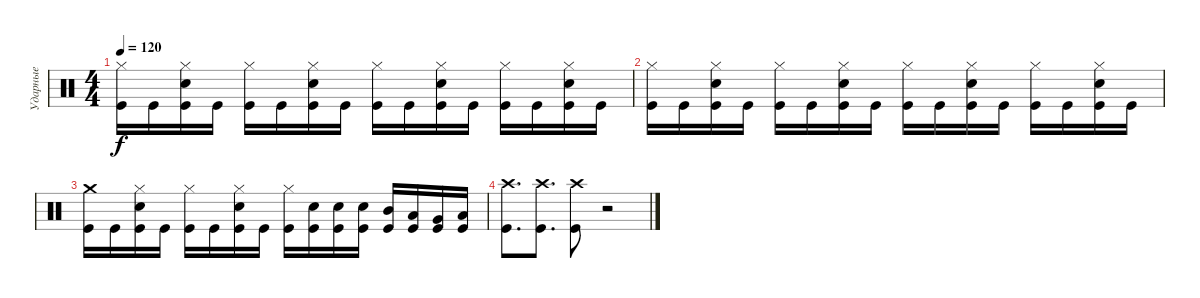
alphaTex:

\track ("Ударные" "Ударные") {instrument percussion}
\staff {score}
\articulation defaults
\ts (4 4)
\tempo 120
\clef neutral
\ks c
("Hi-Hat (closed)" "Kick (hit)").16{dy f} "Kick (hit)".16 ("Hi-Hat (closed)" "Snare (hit) 2" "Kick (hit)").16 "Kick (hit)".16 ("Hi-Hat (closed)" "Kick (hit)").16 "Kick (hit)".16 ("Hi-Hat (closed)" "Snare (hit) 2" "Kick (hit)").16 "Kick (hit)".16 ("Hi-Hat (closed)" "Kick (hit)").16 "Kick (hit)".16 ("Hi-Hat (closed)" "Snare (hit) 2" "Kick (hit)").16 "Kick (hit)".16 ("Hi-Hat (closed)" "Kick (hit)").16 "Kick (hit)".16 ("Hi-Hat (closed)" "Snare (hit) 2" "Kick (hit)").16 "Kick (hit)".16 |
("Hi-Hat (closed)" "Kick (hit)").16 "Kick (hit)".16 ("Hi-Hat (closed)" "Snare (hit) 2" "Kick (hit)").16 "Kick (hit)".16 ("Hi-Hat (closed)" "Kick (hit)").16 "Kick (hit)".16 ("Hi-Hat (closed)" "Snare (hit) 2" "Kick (hit)").16 "Kick (hit)".16 ("Hi-Hat (closed)" "Kick (hit)").16 "Kick (hit)".16 ("Hi-Hat (closed)" "Snare (hit) 2" "Kick (hit)").16 "Kick (hit)".16 ("Hi-Hat (closed)" "Kick (hit)").16 "Kick (hit)".16 ("Hi-Hat (closed)" "Snare (hit) 2" "Kick (hit)").16 "Kick (hit)".16 |
("Crash medium (hit)" "Kick (hit)").16 "Kick (hit)".16 ("Hi-Hat (closed)" "Snare (hit) 2" "Kick (hit)").16 "Kick (hit)".16 ("Hi-Hat (closed)" "Kick (hit)").16 "Kick (hit)".16 ("Hi-Hat (closed)" "Snare (hit) 2" "Kick (hit)").16 "Kick (hit)".16 ("Hi-Hat (closed)" "Kick (hit)").16 ("Snare (hit) 2" "Kick (hit)").16 ("Snare (hit) 2" "Kick (hit)").16 ("Snare (hit) 2" "Kick (hit)").16 ("Mid Tom (hit)" "Kick (hit)").16 ("Low Tom (hit)" "Kick (hit)").16 ("Very Low Tom (hit)" "Kick (hit)").16 ("Low Floor Tom (hit)" "Kick (hit)").16 |
("Crash high (hit)" "Kick (hit)").8{d} ("Crash high (hit)" "Kick (hit)").8{d} ("Crash high (hit)" "Kick (hit)").8 r.2
